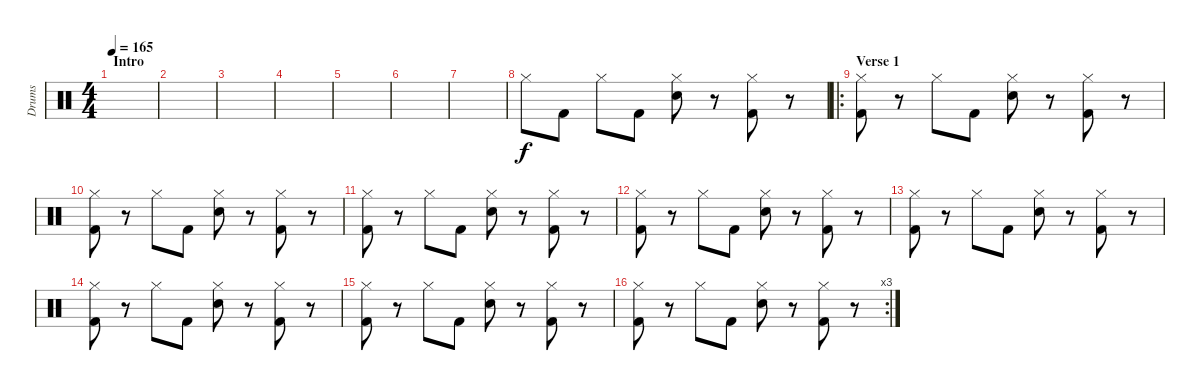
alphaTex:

\track ("Drums" "Drums") {instrument percussion}
\staff {score}
\articulation defaults
\ts (4 4)
\section ("" "Intro")
\tempo 165
\clef neutral
\ks c
|
|
|
|
|
|
|
"Hi-Hat (closed)".8 "Kick (hit) 2".8 "Hi-Hat (closed)".8 "Kick (hit) 2".8 ("Hi-Hat (closed)" "Electric Snare (hit)").8 r.8 ("Hi-Hat (closed)" "Kick (hit) 2").8 r.8 |
\ro
\section ("" "Verse 1")
("Hi-Hat (closed)" "Kick (hit) 2").8 r.8 "Hi-Hat (closed)".8 "Kick (hit) 2".8 ("Hi-Hat (closed)" "Electric Snare (hit)").8 r.8 ("Hi-Hat (closed)" "Kick (hit) 2").8 r.8 |
("Hi-Hat (closed)" "Kick (hit) 2").8 r.8 "Hi-Hat (closed)".8 "Kick (hit) 2".8 ("Hi-Hat (closed)" "Electric Snare (hit)").8 r.8 ("Hi-Hat (closed)" "Kick (hit) 2").8 r.8 |
("Hi-Hat (closed)" "Kick (hit) 2").8 r.8 "Hi-Hat (closed)".8 "Kick (hit) 2".8 ("Hi-Hat (closed)" "Electric Snare (hit)").8 r.8 ("Hi-Hat (closed)" "Kick (hit) 2").8 r.8 |
("Hi-Hat (closed)" "Kick (hit) 2").8 r.8 "Hi-Hat (closed)".8 "Kick (hit) 2".8 ("Hi-Hat (closed)" "Electric Snare (hit)").8 r.8 ("Hi-Hat (closed)" "Kick (hit) 2").8 r.8 |
("Hi-Hat (closed)" "Kick (hit) 2").8 r.8 "Hi-Hat (closed)".8 "Kick (hit) 2".8 ("Hi-Hat (closed)" "Electric Snare (hit)").8 r.8 ("Hi-Hat (closed)" "Kick (hit) 2").8 r.8 |
("Hi-Hat (closed)" "Kick (hit) 2").8 r.8 "Hi-Hat (closed)".8 "Kick (hit) 2".8 ("Hi-Hat (closed)" "Electric Snare (hit)").8 r.8 ("Hi-Hat (closed)" "Kick (hit) 2").8 r.8 |
("Hi-Hat (closed)" "Kick (hit) 2").8 r.8 "Hi-Hat (closed)".8 "Kick (hit) 2".8 ("Hi-Hat (closed)" "Electric Snare (hit)").8 r.8 ("Hi-Hat (closed)" "Kick (hit) 2").8 r.8 |
\rc 3
("Hi-Hat (closed)" "Kick (hit) 2").8 r.8 "Hi-Hat (closed)".8 "Kick (hit) 2".8 ("Hi-Hat (closed)" "Electric Snare (hit)").8 r.8 ("Hi-Hat (closed)" "Kick (hit) 2").8 r.8
